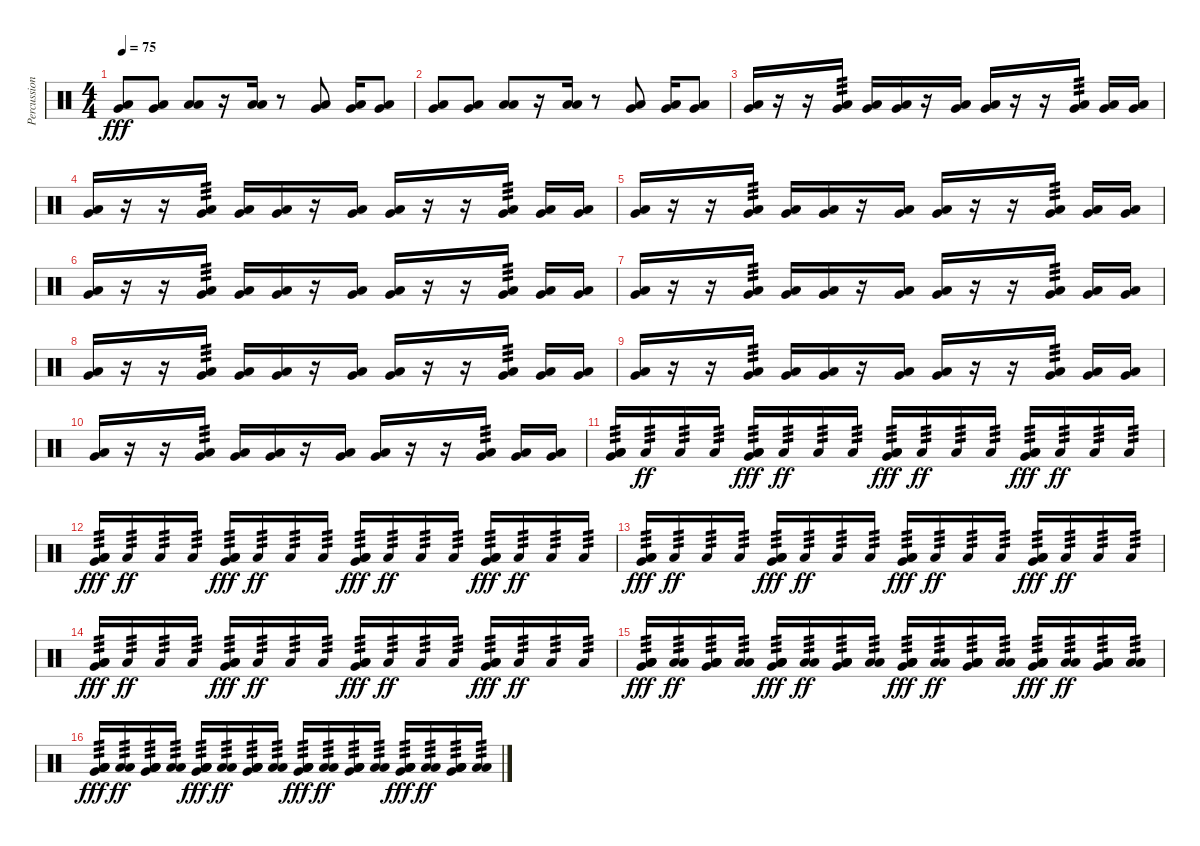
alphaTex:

\track ("Percussion" "Percussion") {instrument percussion}
\staff {score}
\articulation defaults
\ts (4 4)
\tempo 75
\clef neutral
\ks c
("Very Low Tom (hit)" "Low Floor Tom (hit)").8{dy fff} ("Very Low Tom (hit)" "Low Floor Tom (hit)").8 ("Low Tom (hit)" "Low Tom (hit)").8 r.16 ("Low Tom (hit)" "Low Tom (hit)").16 r.8 ("Low Floor Tom (hit)" "Very Low Tom (hit)").8 ("Very Low Tom (hit)" "Low Floor Tom (hit)").16 ("Very Low Tom (hit)" "Low Floor Tom (hit)").8 |
("Very Low Tom (hit)" "Low Floor Tom (hit)").8 ("Very Low Tom (hit)" "Low Floor Tom (hit)").8 ("Low Tom (hit)" "Low Tom (hit)").8 r.16 ("Low Tom (hit)" "Low Tom (hit)").16 r.8 ("Low Floor Tom (hit)" "Very Low Tom (hit)").8 ("Very Low Tom (hit)" "Low Floor Tom (hit)").16 ("Very Low Tom (hit)" "Low Floor Tom (hit)").8 |
("Very Low Tom (hit)" "Low Floor Tom (hit)").16 r.16 r.16 ("Very Low Tom (hit)" "Low Floor Tom (hit)").16{tp 3} ("Very Low Tom (hit)" "Low Floor Tom (hit)").16 ("Very Low Tom (hit)" "Low Floor Tom (hit)").16 r.16 ("Very Low Tom (hit)" "Low Floor Tom (hit)").16 ("Very Low Tom (hit)" "Low Floor Tom (hit)").16 r.16 r.16 ("Very Low Tom (hit)" "Low Floor Tom (hit)").16{tp 3} ("Very Low Tom (hit)" "Low Floor Tom (hit)").16 ("Very Low Tom (hit)" "Low Floor Tom (hit)").16 |
("Very Low Tom (hit)" "Low Floor Tom (hit)").16 r.16 r.16 ("Very Low Tom (hit)" "Low Floor Tom (hit)").16{tp 3} ("Very Low Tom (hit)" "Low Floor Tom (hit)").16 ("Very Low Tom (hit)" "Low Floor Tom (hit)").16 r.16 ("Very Low Tom (hit)" "Low Floor Tom (hit)").16 ("Very Low Tom (hit)" "Low Floor Tom (hit)").16 r.16 r.16 ("Very Low Tom (hit)" "Low Floor Tom (hit)").16{tp 3} ("Very Low Tom (hit)" "Low Floor Tom (hit)").16 ("Very Low Tom (hit)" "Low Floor Tom (hit)").16 |
("Very Low Tom (hit)" "Low Floor Tom (hit)").16 r.16 r.16 ("Very Low Tom (hit)" "Low Floor Tom (hit)").16{tp 3} ("Very Low Tom (hit)" "Low Floor Tom (hit)").16 ("Very Low Tom (hit)" "Low Floor Tom (hit)").16 r.16 ("Very Low Tom (hit)" "Low Floor Tom (hit)").16 ("Very Low Tom (hit)" "Low Floor Tom (hit)").16 r.16 r.16 ("Very Low Tom (hit)" "Low Floor Tom (hit)").16{tp 3} ("Very Low Tom (hit)" "Low Floor Tom (hit)").16 ("Very Low Tom (hit)" "Low Floor Tom (hit)").16 |
("Very Low Tom (hit)" "Low Floor Tom (hit)").16 r.16 r.16 ("Very Low Tom (hit)" "Low Floor Tom (hit)").16{tp 3} ("Very Low Tom (hit)" "Low Floor Tom (hit)").16 ("Very Low Tom (hit)" "Low Floor Tom (hit)").16 r.16 ("Very Low Tom (hit)" "Low Floor Tom (hit)").16 ("Very Low Tom (hit)" "Low Floor Tom (hit)").16 r.16 r.16 ("Very Low Tom (hit)" "Low Floor Tom (hit)").16{tp 3} ("Very Low Tom (hit)" "Low Floor Tom (hit)").16 ("Very Low Tom (hit)" "Low Floor Tom (hit)").16 |
("Very Low Tom (hit)" "Low Floor Tom (hit)").16 r.16 r.16 ("Very Low Tom (hit)" "Low Floor Tom (hit)").16{tp 3} ("Very Low Tom (hit)" "Low Floor Tom (hit)").16 ("Very Low Tom (hit)" "Low Floor Tom (hit)").16 r.16 ("Very Low Tom (hit)" "Low Floor Tom (hit)").16 ("Very Low Tom (hit)" "Low Floor Tom (hit)").16 r.16 r.16 ("Very Low Tom (hit)" "Low Floor Tom (hit)").16{tp 3} ("Very Low Tom (hit)" "Low Floor Tom (hit)").16 ("Very Low Tom (hit)" "Low Floor Tom (hit)").16 |
("Very Low Tom (hit)" "Low Floor Tom (hit)").16 r.16 r.16 ("Very Low Tom (hit)" "Low Floor Tom (hit)").16{tp 3} ("Very Low Tom (hit)" "Low Floor Tom (hit)").16 ("Very Low Tom (hit)" "Low Floor Tom (hit)").16 r.16 ("Very Low Tom (hit)" "Low Floor Tom (hit)").16 ("Very Low Tom (hit)" "Low Floor Tom (hit)").16 r.16 r.16 ("Very Low Tom (hit)" "Low Floor Tom (hit)").16{tp 3} ("Very Low Tom (hit)" "Low Floor Tom (hit)").16 ("Very Low Tom (hit)" "Low Floor Tom (hit)").16 |
("Very Low Tom (hit)" "Low Floor Tom (hit)").16 r.16 r.16 ("Very Low Tom (hit)" "Low Floor Tom (hit)").16{tp 3} ("Very Low Tom (hit)" "Low Floor Tom (hit)").16 ("Very Low Tom (hit)" "Low Floor Tom (hit)").16 r.16 ("Very Low Tom (hit)" "Low Floor Tom (hit)").16 ("Very Low Tom (hit)" "Low Floor Tom (hit)").16 r.16 r.16 ("Very Low Tom (hit)" "Low Floor Tom (hit)").16{tp 3} ("Very Low Tom (hit)" "Low Floor Tom (hit)").16 ("Very Low Tom (hit)" "Low Floor Tom (hit)").16 |
("Very Low Tom (hit)" "Low Floor Tom (hit)").16 r.16 r.16 ("Very Low Tom (hit)" "Low Floor Tom (hit)").16{tp 3} ("Very Low Tom (hit)" "Low Floor Tom (hit)").16 ("Very Low Tom (hit)" "Low Floor Tom (hit)").16 r.16 ("Very Low Tom (hit)" "Low Floor Tom (hit)").16 ("Very Low Tom (hit)" "Low Floor Tom (hit)").16 r.16 r.16 ("Very Low Tom (hit)" "Low Floor Tom (hit)").16{tp 3} ("Very Low Tom (hit)" "Low Floor Tom (hit)").16 ("Very Low Tom (hit)" "Low Floor Tom (hit)").16 |
("Low Floor Tom (hit)" "Very Low Tom (hit)" "Low Floor Tom (hit)").16{tp 3} "Low Floor Tom (hit)".16{tp 3 dy ff} "Low Floor Tom (hit)".16{tp 3} "Low Floor Tom (hit)".16{tp 3} ("Low Floor Tom (hit)" "Very Low Tom (hit)" "Low Floor Tom (hit)").16{tp 3 dy fff} "Low Floor Tom (hit)".16{tp 3 dy ff} "Low Floor Tom (hit)".16{tp 3} "Low Floor Tom (hit)".16{tp 3} ("Low Floor Tom (hit)" "Very Low Tom (hit)" "Low Floor Tom (hit)").16{tp 3 dy fff} "Low Floor Tom (hit)".16{tp 3 dy ff} "Low Floor Tom (hit)".16{tp 3} "Low Floor Tom (hit)".16{tp 3} ("Low Floor Tom (hit)" "Very Low Tom (hit)" "Low Floor Tom (hit)").16{tp 3 dy fff} "Low Floor Tom (hit)".16{tp 3 dy ff} "Low Floor Tom (hit)".16{tp 3} "Low Floor Tom (hit)".16{tp 3} |
("Low Floor Tom (hit)" "Very Low Tom (hit)" "Low Floor Tom (hit)").16{tp 3 dy fff} "Low Floor Tom (hit)".16{tp 3 dy ff} "Low Floor Tom (hit)".16{tp 3} "Low Floor Tom (hit)".16{tp 3} ("Low Floor Tom (hit)" "Very Low Tom (hit)" "Low Floor Tom (hit)").16{tp 3 dy fff} "Low Floor Tom (hit)".16{tp 3 dy ff} "Low Floor Tom (hit)".16{tp 3} "Low Floor Tom (hit)".16{tp 3} ("Low Floor Tom (hit)" "Very Low Tom (hit)" "Low Floor Tom (hit)").16{tp 3 dy fff} "Low Floor Tom (hit)".16{tp 3 dy ff} "Low Floor Tom (hit)".16{tp 3} "Low Floor Tom (hit)".16{tp 3} ("Low Floor Tom (hit)" "Very Low Tom (hit)" "Low Floor Tom (hit)").16{tp 3 dy fff} "Low Floor Tom (hit)".16{tp 3 dy ff} "Low Floor Tom (hit)".16{tp 3} "Low Floor Tom (hit)".16{tp 3} |
("Low Floor Tom (hit)" "Very Low Tom (hit)" "Low Floor Tom (hit)").16{tp 3 dy fff} "Low Floor Tom (hit)".16{tp 3 dy ff} "Low Floor Tom (hit)".16{tp 3} "Low Floor Tom (hit)".16{tp 3} ("Low Floor Tom (hit)" "Very Low Tom (hit)" "Low Floor Tom (hit)").16{tp 3 dy fff} "Low Floor Tom (hit)".16{tp 3 dy ff} "Low Floor Tom (hit)".16{tp 3} "Low Floor Tom (hit)".16{tp 3} ("Low Floor Tom (hit)" "Very Low Tom (hit)" "Low Floor Tom (hit)").16{tp 3 dy fff} "Low Floor Tom (hit)".16{tp 3 dy ff} "Low Floor Tom (hit)".16{tp 3} "Low Floor Tom (hit)".16{tp 3} ("Low Floor Tom (hit)" "Very Low Tom (hit)" "Low Floor Tom (hit)").16{tp 3 dy fff} "Low Floor Tom (hit)".16{tp 3 dy ff} "Low Floor Tom (hit)".16{tp 3} "Low Floor Tom (hit)".16{tp 3} |
("Low Floor Tom (hit)" "Very Low Tom (hit)" "Low Floor Tom (hit)").16{tp 3 dy fff} "Low Floor Tom (hit)".16{tp 3 dy ff} "Low Floor Tom (hit)".16{tp 3} "Low Floor Tom (hit)".16{tp 3} ("Low Floor Tom (hit)" "Very Low Tom (hit)" "Low Floor Tom (hit)").16{tp 3 dy fff} "Low Floor Tom (hit)".16{tp 3 dy ff} "Low Floor Tom (hit)".16{tp 3} "Low Floor Tom (hit)".16{tp 3} ("Low Floor Tom (hit)" "Very Low Tom (hit)" "Low Floor Tom (hit)").16{tp 3 dy fff} "Low Floor Tom (hit)".16{tp 3 dy ff} "Low Floor Tom (hit)".16{tp 3} "Low Floor Tom (hit)".16{tp 3} ("Low Floor Tom (hit)" "Very Low Tom (hit)" "Low Floor Tom (hit)").16{tp 3 dy fff} "Low Floor Tom (hit)".16{tp 3 dy ff} "Low Floor Tom (hit)".16{tp 3} "Low Floor Tom (hit)".16{tp 3} |
("Low Floor Tom (hit)" "Low Floor Tom (hit)" "Very Low Tom (hit)" "Low Floor Tom (hit)").16{tp 3 dy fff} ("Low Floor Tom (hit)" "Low Floor Tom (hit)").16{tp 3 dy ff} ("Low Floor Tom (hit)" "Low Floor Tom (hit)" "Very Low Tom (hit)" "Low Floor Tom (hit)").16{tp 3} ("Low Floor Tom (hit)" "Low Floor Tom (hit)").16{tp 3} ("Low Floor Tom (hit)" "Low Floor Tom (hit)" "Very Low Tom (hit)" "Low Floor Tom (hit)").16{tp 3 dy fff} ("Low Floor Tom (hit)" "Low Floor Tom (hit)").16{tp 3 dy ff} ("Low Floor Tom (hit)" "Low Floor Tom (hit)" "Very Low Tom (hit)" "Low Floor Tom (hit)").16{tp 3} ("Low Floor Tom (hit)" "Low Floor Tom (hit)").16{tp 3} ("Low Floor Tom (hit)" "Low Floor Tom (hit)" "Very Low Tom (hit)" "Low Floor Tom (hit)").16{tp 3 dy fff} ("Low Floor Tom (hit)" "Low Floor Tom (hit)").16{tp 3 dy ff} ("Low Floor Tom (hit)" "Low Floor Tom (hit)" "Very Low Tom (hit)" "Low Floor Tom (hit)").16{tp 3} ("Low Floor Tom (hit)" "Low Floor Tom (hit)").16{tp 3} ("Low Floor Tom (hit)" "Low Floor Tom (hit)" "Very Low Tom (hit)" "Low Floor Tom (hit)").16{tp 3 dy fff} ("Low Floor Tom (hit)" "Low Floor Tom (hit)").16{tp 3 dy ff} ("Low Floor Tom (hit)" "Low Floor Tom (hit)" "Very Low Tom (hit)" "Low Floor Tom (hit)").16{tp 3} ("Low Floor Tom (hit)" "Low Floor Tom (hit)").16{tp 3} |
("Low Floor Tom (hit)" "Low Floor Tom (hit)" "Very Low Tom (hit)" "Low Floor Tom (hit)").16{tp 3 dy fff} ("Low Floor Tom (hit)" "Low Floor Tom (hit)").16{tp 3 dy ff} ("Low Floor Tom (hit)" "Low Floor Tom (hit)" "Very Low Tom (hit)" "Low Floor Tom (hit)").16{tp 3} ("Low Floor Tom (hit)" "Low Floor Tom (hit)").16{tp 3} ("Low Floor Tom (hit)" "Low Floor Tom (hit)" "Very Low Tom (hit)" "Low Floor Tom (hit)").16{tp 3 dy fff} ("Low Floor Tom (hit)" "Low Floor Tom (hit)").16{tp 3 dy ff} ("Low Floor Tom (hit)" "Low Floor Tom (hit)" "Very Low Tom (hit)" "Low Floor Tom (hit)").16{tp 3} ("Low Floor Tom (hit)" "Low Floor Tom (hit)").16{tp 3} ("Low Floor Tom (hit)" "Low Floor Tom (hit)" "Very Low Tom (hit)" "Low Floor Tom (hit)").16{tp 3 dy fff} ("Low Floor Tom (hit)" "Low Floor Tom (hit)").16{tp 3 dy ff} ("Low Floor Tom (hit)" "Low Floor Tom (hit)" "Very Low Tom (hit)" "Low Floor Tom (hit)").16{tp 3} ("Low Floor Tom (hit)" "Low Floor Tom (hit)").16{tp 3} ("Low Floor Tom (hit)" "Low Floor Tom (hit)" "Very Low Tom (hit)" "Low Floor Tom (hit)").16{tp 3 dy fff} ("Low Floor Tom (hit)" "Low Floor Tom (hit)").16{tp 3 dy ff} ("Low Floor Tom (hit)" "Low Floor Tom (hit)" "Very Low Tom (hit)" "Low Floor Tom (hit)").16{tp 3} ("Low Floor Tom (hit)" "Low Floor Tom (hit)").16{tp 3}
